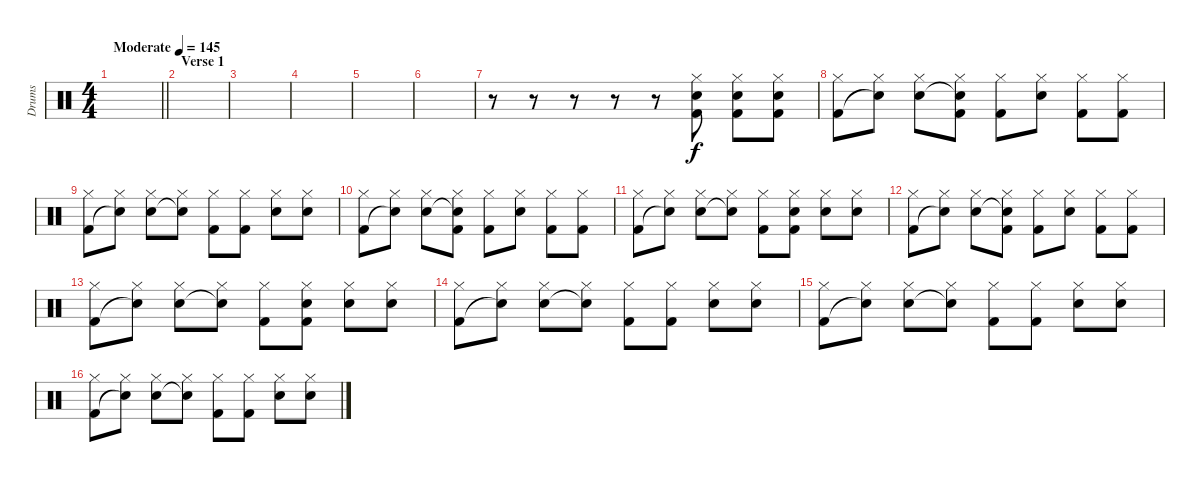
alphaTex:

\track ("Drums" "Drums") {instrument percussion}
\staff {score}
\articulation defaults
\ts (4 4)
\tempo (145 "Moderate")
\clef neutral
\barLineRight lightlight
\ks c
|
\section ("" "Verse 1")
|
|
|
|
|
r.8 r.8 r.8 r.8 r.8 ("Hi-Hat (closed)" "Electric Snare (hit)" "Kick (hit) 2").8 ("Hi-Hat (closed)" "Electric Snare (hit)" "Kick (hit) 2").8 ("Hi-Hat (closed)" "Electric Snare (hit)" "Kick (hit) 2").8 |
("Hi-Hat (closed)" "Kick (hit) 2").8 ("Hi-Hat (closed)" "Snare (hit)"{t}).8 ("Hi-Hat (closed)" "Electric Snare (hit)").8 ("Hi-Hat (closed)" "Snare (hit)"{t} "Kick (hit) 2").8 ("Hi-Hat (closed)" "Kick (hit) 2").8 ("Hi-Hat (closed)" "Electric Snare (hit)").8 ("Hi-Hat (closed)" "Kick (hit) 2").8 ("Hi-Hat (closed)" "Kick (hit) 2").8 |
("Hi-Hat (closed)" "Kick (hit) 2").8 ("Hi-Hat (closed)" "Snare (hit)"{t}).8 ("Hi-Hat (closed)" "Electric Snare (hit)").8 ("Hi-Hat (closed)" "Snare (hit)"{t}).8 ("Hi-Hat (closed)" "Kick (hit) 2").8 ("Hi-Hat (closed)" "Kick (hit) 2").8 ("Hi-Hat (closed)" "Electric Snare (hit)").8 ("Hi-Hat (closed)" "Electric Snare (hit)").8 |
("Hi-Hat (closed)" "Kick (hit) 2").8 ("Hi-Hat (closed)" "Snare (hit)"{t}).8 ("Hi-Hat (closed)" "Electric Snare (hit)").8 ("Hi-Hat (closed)" "Snare (hit)"{t} "Kick (hit) 2").8 ("Hi-Hat (closed)" "Kick (hit) 2").8 ("Hi-Hat (closed)" "Electric Snare (hit)").8 ("Hi-Hat (closed)" "Kick (hit) 2").8 ("Hi-Hat (closed)" "Kick (hit) 2").8 |
("Hi-Hat (closed)" "Kick (hit) 2").8 ("Hi-Hat (closed)" "Snare (hit)"{t}).8 ("Hi-Hat (closed)" "Electric Snare (hit)").8 ("Hi-Hat (closed)" "Snare (hit)"{t}).8 ("Hi-Hat (closed)" "Kick (hit) 2").8 ("Hi-Hat (closed)" "Electric Snare (hit)" "Kick (hit) 2").8 ("Hi-Hat (closed)" "Electric Snare (hit)").8 ("Hi-Hat (closed)" "Electric Snare (hit)").8 |
("Hi-Hat (closed)" "Kick (hit) 2").8 ("Hi-Hat (closed)" "Snare (hit)"{t}).8 ("Hi-Hat (closed)" "Electric Snare (hit)").8 ("Hi-Hat (closed)" "Snare (hit)"{t} "Kick (hit) 2").8 ("Hi-Hat (closed)" "Kick (hit) 2").8 ("Hi-Hat (closed)" "Electric Snare (hit)").8 ("Hi-Hat (closed)" "Kick (hit) 2").8 ("Hi-Hat (closed)" "Kick (hit) 2").8 |
("Hi-Hat (closed)" "Kick (hit) 2").8 ("Hi-Hat (closed)" "Snare (hit)"{t}).8 ("Hi-Hat (closed)" "Electric Snare (hit)").8 ("Hi-Hat (closed)" "Snare (hit)"{t}).8 ("Hi-Hat (closed)" "Kick (hit) 2").8 ("Hi-Hat (closed)" "Electric Snare (hit)" "Kick (hit) 2").8 ("Hi-Hat (closed)" "Electric Snare (hit)").8 ("Hi-Hat (closed)" "Electric Snare (hit)").8 |
("Hi-Hat (closed)" "Kick (hit) 2").8 ("Hi-Hat (closed)" "Snare (hit)"{t}).8 ("Hi-Hat (closed)" "Electric Snare (hit)").8 ("Hi-Hat (closed)" "Snare (hit)"{t}).8 ("Hi-Hat (closed)" "Kick (hit) 2").8 ("Hi-Hat (closed)" "Kick (hit) 2").8 ("Hi-Hat (closed)" "Electric Snare (hit)").8 ("Hi-Hat (closed)" "Electric Snare (hit)").8 |
("Hi-Hat (closed)" "Kick (hit) 2").8 ("Hi-Hat (closed)" "Snare (hit)"{t}).8 ("Hi-Hat (closed)" "Electric Snare (hit)").8 ("Hi-Hat (closed)" "Snare (hit)"{t}).8 ("Hi-Hat (closed)" "Kick (hit) 2").8 ("Hi-Hat (closed)" "Kick (hit) 2").8 ("Hi-Hat (closed)" "Electric Snare (hit)").8 ("Hi-Hat (closed)" "Electric Snare (hit)").8 |
("Hi-Hat (closed)" "Kick (hit) 2").8 ("Hi-Hat (closed)" "Snare (hit)"{t}).8 ("Hi-Hat (closed)" "Electric Snare (hit)").8 ("Hi-Hat (closed)" "Snare (hit)"{t}).8 ("Hi-Hat (closed)" "Kick (hit) 2").8 ("Hi-Hat (closed)" "Kick (hit) 2").8 ("Hi-Hat (closed)" "Electric Snare (hit)").8 ("Hi-Hat (closed)" "Electric Snare (hit)").8
